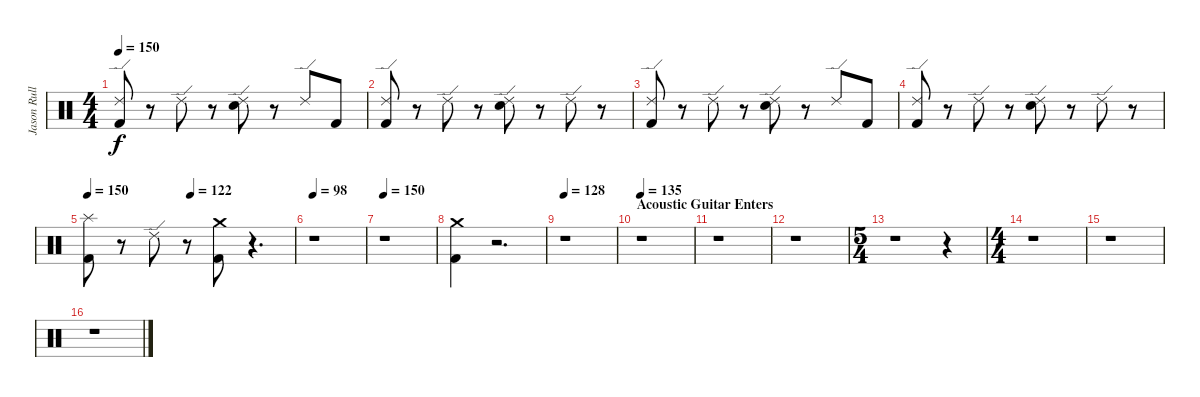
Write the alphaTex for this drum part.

\track ("Jason Rullo" "Jason Rull") {instrument percussion}
\staff {score}
\articulation defaults
\ts (4 4)
\tempo 150
\clef neutral
\ks c
("Ride (edge) 2" "Kick (hit) 2").8{dy f} r.8 "Ride (edge) 2".8 r.8 ("Ride (edge) 2" "Electric Snare (hit)").8 r.8 "Ride (edge) 2".8 "Kick (hit) 2".8 |
("Ride (edge) 2" "Kick (hit) 2").8 r.8 "Ride (edge) 2".8 r.8 ("Ride (edge) 2" "Electric Snare (hit)").8 r.8 "Ride (edge) 2".8 r.8 |
("Ride (edge) 2" "Kick (hit) 2").8 r.8 "Ride (edge) 2".8 r.8 ("Ride (edge) 2" "Electric Snare (hit)").8 r.8 "Ride (edge) 2".8 "Kick (hit) 2".8 |
("Ride (edge) 2" "Kick (hit) 2").8 r.8 "Ride (edge) 2".8 r.8 ("Ride (edge) 2" "Electric Snare (hit)").8 r.8 "Ride (edge) 2".8 r.8 |
\tempo 150
\tempo (122 0.5)
("Splash (hit)" "Kick (hit) 2").8{volume 16 balance 8} r.8 "Ride (edge) 2".8 r.8 ("Crash medium (hit)" "Kick (hit) 2").8 r.4{d} |
\tempo 98
r.1 |
\tempo 150
r.1 |
("Crash medium (hit)" "Kick (hit) 2").4{volume 16} r.2{d} |
\tempo 128
r.1 |
\section ("" "Acoustic Guitar Enters")
\tempo 135
r.1 |
r.1 |
r.1 |
\ts (5 4)
r.1 r.4 |
\ts (4 4)
r.1 |
r.1 |
r.1
